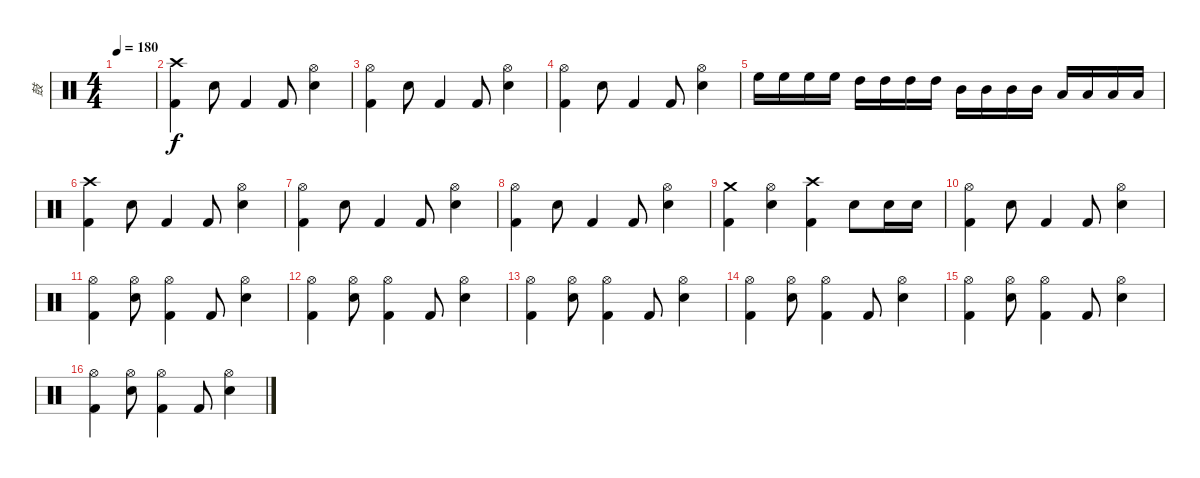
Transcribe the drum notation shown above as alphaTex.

\track ("鼓" "鼓") {instrument percussion}
\staff {score}
\articulation defaults
\ts (4 4)
\tempo 180
\clef neutral
\ks c
|
("Crash high (hit)" "Kick (hit) 2").4 "Snare (hit) 2".8 "Kick (hit) 2".4 "Kick (hit) 2".8 ("Hi-Hat (open)" "Snare (hit) 2").4 |
("Hi-Hat (open)" "Kick (hit) 2").4 "Snare (hit) 2".8 "Kick (hit) 2".4 "Kick (hit) 2".8 ("Hi-Hat (open)" "Snare (hit) 2").4 |
("Hi-Hat (open)" "Kick (hit) 2").4 "Snare (hit) 2".8 "Kick (hit) 2".4 "Kick (hit) 2".8 ("Hi-Hat (open)" "Snare (hit) 2").4 |
"High Floor Tom (hit)".16 "High Floor Tom (hit)".16 "High Floor Tom (hit)".16 "High Floor Tom (hit)".16 "High Tom (hit)".16 "High Tom (hit)".16 "High Tom (hit)".16 "High Tom (hit)".16 "Mid Tom (hit)".16 "Mid Tom (hit)".16 "Mid Tom (hit)".16 "Mid Tom (hit)".16 "Low Tom (hit)".16 "Low Tom (hit)".16 "Low Tom (hit)".16 "Low Tom (hit)".16 |
("Crash high (hit)" "Kick (hit) 2").4 "Snare (hit) 2".8 "Kick (hit) 2".4 "Kick (hit) 2".8 ("Hi-Hat (open)" "Snare (hit) 2").4 |
("Hi-Hat (open)" "Kick (hit) 2").4 "Snare (hit) 2".8 "Kick (hit) 2".4 "Kick (hit) 2".8 ("Hi-Hat (open)" "Snare (hit) 2").4 |
("Hi-Hat (open)" "Kick (hit) 2").4 "Snare (hit) 2".8 "Kick (hit) 2".4 "Kick (hit) 2".8 ("Hi-Hat (open)" "Snare (hit) 2").4 |
("Crash medium (hit)" "Kick (hit) 2").4 ("Hi-Hat (open)" "Electric Snare (hit)").4 ("Crash high (hit)" "Kick (hit) 2").4 "Electric Snare (hit)".8 "Electric Snare (hit)".16 "Electric Snare (hit)".16 |
("Hi-Hat (open)" "Kick (hit) 2").4 "Snare (hit) 2".8 "Kick (hit) 2".4 "Kick (hit) 2".8 ("Hi-Hat (open)" "Snare (hit) 2").4 |
("Hi-Hat (open)" "Kick (hit) 2").4 ("Hi-Hat (open)" "Snare (hit) 2").8 ("Hi-Hat (open)" "Kick (hit) 2").4 "Kick (hit) 2".8 ("Hi-Hat (open)" "Snare (hit) 2").4 |
("Hi-Hat (open)" "Kick (hit) 2").4 ("Hi-Hat (open)" "Snare (hit) 2").8 ("Hi-Hat (open)" "Kick (hit) 2").4 "Kick (hit) 2".8 ("Hi-Hat (open)" "Snare (hit) 2").4 |
("Hi-Hat (open)" "Kick (hit) 2").4 ("Hi-Hat (open)" "Snare (hit) 2").8 ("Hi-Hat (open)" "Kick (hit) 2").4 "Kick (hit) 2".8 ("Hi-Hat (open)" "Snare (hit) 2").4 |
("Hi-Hat (open)" "Kick (hit) 2").4 ("Hi-Hat (open)" "Snare (hit) 2").8 ("Hi-Hat (open)" "Kick (hit) 2").4 "Kick (hit) 2".8 ("Hi-Hat (open)" "Snare (hit) 2").4 |
("Hi-Hat (open)" "Kick (hit) 2").4 ("Hi-Hat (open)" "Snare (hit) 2").8 ("Hi-Hat (open)" "Kick (hit) 2").4 "Kick (hit) 2".8 ("Hi-Hat (open)" "Snare (hit) 2").4 |
("Hi-Hat (open)" "Kick (hit) 2").4 ("Hi-Hat (open)" "Snare (hit) 2").8 ("Hi-Hat (open)" "Kick (hit) 2").4 "Kick (hit) 2".8 ("Hi-Hat (open)" "Snare (hit) 2").4
